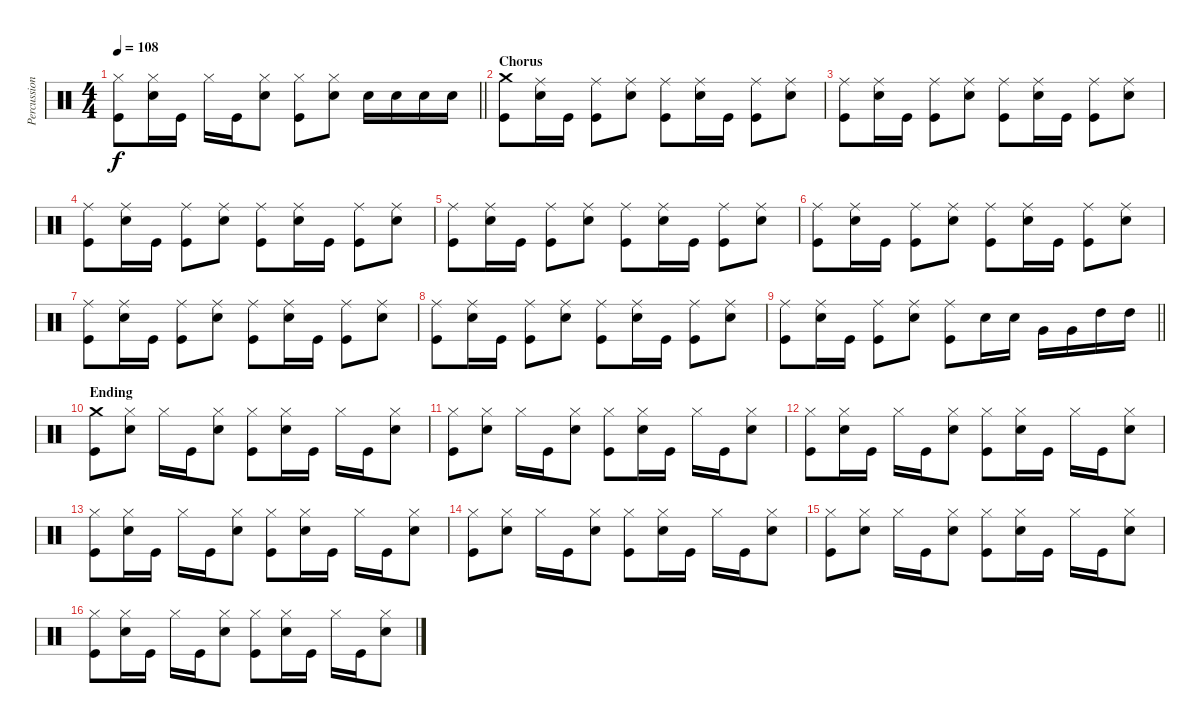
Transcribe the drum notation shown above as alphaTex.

\track ("Percussion" "Percussion") {instrument percussion}
\staff {score}
\articulation defaults
\ts (4 4)
\tempo 108
\clef neutral
\barLineRight lightlight
\ks c
("Kick (hit)" "Hi-Hat (closed)").8{dy f} ("Hi-Hat (closed)" "Snare (hit) 2").16 "Kick (hit)".16 "Hi-Hat (closed)".16 "Kick (hit)".16 ("Hi-Hat (closed)" "Snare (hit) 2").8 ("Kick (hit)" "Hi-Hat (closed)").8 ("Hi-Hat (closed)" "Snare (hit) 2").8 "Snare (hit) 2".16 "Snare (hit) 2".16 "Snare (hit) 2".16 "Snare (hit) 2".16 |
\section ("" "Chorus")
("Kick (hit)" "Crash medium (hit)").8 ("Ride (middle)" "Snare (hit) 2").16 "Kick (hit)".16 ("Kick (hit)" "Ride (middle)").8 ("Ride (middle)" "Snare (hit) 2").8 ("Kick (hit)" "Ride (middle)").8 ("Ride (middle)" "Snare (hit) 2").16 "Kick (hit)".16 ("Kick (hit)" "Ride (middle)").8 ("Ride (middle)" "Snare (hit) 2").8 |
("Kick (hit)" "Ride (middle)").8 ("Ride (middle)" "Snare (hit) 2").16 "Kick (hit)".16 ("Kick (hit)" "Ride (middle)").8 ("Ride (middle)" "Snare (hit) 2").8 ("Kick (hit)" "Ride (middle)").8 ("Ride (middle)" "Snare (hit) 2").16 "Kick (hit)".16 ("Kick (hit)" "Ride (middle)").8 ("Ride (middle)" "Snare (hit) 2").8 |
("Kick (hit)" "Ride (middle)").8 ("Ride (middle)" "Snare (hit) 2").16 "Kick (hit)".16 ("Kick (hit)" "Ride (middle)").8 ("Ride (middle)" "Snare (hit) 2").8 ("Kick (hit)" "Ride (middle)").8 ("Ride (middle)" "Snare (hit) 2").16 "Kick (hit)".16 ("Kick (hit)" "Ride (middle)").8 ("Ride (middle)" "Snare (hit) 2").8 |
("Kick (hit)" "Ride (middle)").8 ("Ride (middle)" "Snare (hit) 2").16 "Kick (hit)".16 ("Kick (hit)" "Ride (middle)").8 ("Ride (middle)" "Snare (hit) 2").8 ("Kick (hit)" "Ride (middle)").8 ("Ride (middle)" "Snare (hit) 2").16 "Kick (hit)".16 ("Kick (hit)" "Ride (middle)").8 ("Ride (middle)" "Snare (hit) 2").8 |
("Kick (hit)" "Ride (middle)").8 ("Ride (middle)" "Snare (hit) 2").16 "Kick (hit)".16 ("Kick (hit)" "Ride (middle)").8 ("Ride (middle)" "Snare (hit) 2").8 ("Kick (hit)" "Ride (middle)").8 ("Ride (middle)" "Snare (hit) 2").16 "Kick (hit)".16 ("Kick (hit)" "Ride (middle)").8 ("Ride (middle)" "Snare (hit) 2").8 |
("Kick (hit)" "Ride (middle)").8 ("Ride (middle)" "Snare (hit) 2").16 "Kick (hit)".16 ("Kick (hit)" "Ride (middle)").8 ("Ride (middle)" "Snare (hit) 2").8 ("Kick (hit)" "Ride (middle)").8 ("Ride (middle)" "Snare (hit) 2").16 "Kick (hit)".16 ("Kick (hit)" "Ride (middle)").8 ("Ride (middle)" "Snare (hit) 2").8 |
("Kick (hit)" "Ride (middle)").8 ("Ride (middle)" "Snare (hit) 2").16 "Kick (hit)".16 ("Kick (hit)" "Ride (middle)").8 ("Ride (middle)" "Snare (hit) 2").8 ("Kick (hit)" "Ride (middle)").8 ("Ride (middle)" "Snare (hit) 2").16 "Kick (hit)".16 ("Kick (hit)" "Ride (middle)").8 ("Ride (middle)" "Snare (hit) 2").8 |
\barLineRight lightlight
("Kick (hit)" "Ride (middle)").8 ("Ride (middle)" "Snare (hit) 2").16 "Kick (hit)".16 ("Kick (hit)" "Ride (middle)").8 ("Ride (middle)" "Snare (hit) 2").8 ("Kick (hit)" "Ride (middle)").8 "Snare (hit) 2".16 "Snare (hit) 2".16 "Very Low Tom (hit)".16 "Very Low Tom (hit)".16 "High Tom (hit)".16 "High Tom (hit)".16 |
\section ("" "Ending")
("Kick (hit)" "Crash medium (hit)").8 ("Hi-Hat (closed)" "Snare (hit) 2").8 "Hi-Hat (closed)".16 "Kick (hit)".16 ("Hi-Hat (closed)" "Snare (hit) 2").8 ("Kick (hit)" "Hi-Hat (closed)").8 ("Hi-Hat (closed)" "Snare (hit) 2").16 "Kick (hit)".16 "Hi-Hat (closed)".16 "Kick (hit)".16 ("Hi-Hat (closed)" "Snare (hit) 2").8 |
("Kick (hit)" "Hi-Hat (closed)").8 ("Hi-Hat (closed)" "Snare (hit) 2").8 "Hi-Hat (closed)".16 "Kick (hit)".16 ("Hi-Hat (closed)" "Snare (hit) 2").8 ("Kick (hit)" "Hi-Hat (closed)").8 ("Hi-Hat (closed)" "Snare (hit) 2").16 "Kick (hit)".16 "Hi-Hat (closed)".16 "Kick (hit)".16 ("Hi-Hat (closed)" "Snare (hit) 2").8 |
("Kick (hit)" "Hi-Hat (closed)").8 ("Hi-Hat (closed)" "Snare (hit) 2").16 "Kick (hit)".16 "Hi-Hat (closed)".16 "Kick (hit)".16 ("Hi-Hat (closed)" "Snare (hit) 2").8 ("Kick (hit)" "Hi-Hat (closed)").8 ("Hi-Hat (closed)" "Snare (hit) 2").16 "Kick (hit)".16 "Hi-Hat (closed)".16 "Kick (hit)".16 ("Hi-Hat (closed)" "Snare (hit) 2").8 |
("Kick (hit)" "Hi-Hat (closed)").8 ("Hi-Hat (closed)" "Snare (hit) 2").16 "Kick (hit)".16 "Hi-Hat (closed)".16 "Kick (hit)".16 ("Hi-Hat (closed)" "Snare (hit) 2").8 ("Kick (hit)" "Hi-Hat (closed)").8 ("Hi-Hat (closed)" "Snare (hit) 2").16 "Kick (hit)".16 "Hi-Hat (closed)".16 "Kick (hit)".16 ("Hi-Hat (closed)" "Snare (hit) 2").8 |
("Kick (hit)" "Hi-Hat (closed)").8 ("Hi-Hat (closed)" "Snare (hit) 2").8 "Hi-Hat (closed)".16 "Kick (hit)".16 ("Hi-Hat (closed)" "Snare (hit) 2").8 ("Kick (hit)" "Hi-Hat (closed)").8 ("Hi-Hat (closed)" "Snare (hit) 2").16 "Kick (hit)".16 "Hi-Hat (closed)".16 "Kick (hit)".16 ("Hi-Hat (closed)" "Snare (hit) 2").8 |
("Kick (hit)" "Hi-Hat (closed)").8 ("Hi-Hat (closed)" "Snare (hit) 2").8 "Hi-Hat (closed)".16 "Kick (hit)".16 ("Hi-Hat (closed)" "Snare (hit) 2").8 ("Kick (hit)" "Hi-Hat (closed)").8 ("Hi-Hat (closed)" "Snare (hit) 2").16 "Kick (hit)".16 "Hi-Hat (closed)".16 "Kick (hit)".16 ("Hi-Hat (closed)" "Snare (hit) 2").8 |
("Kick (hit)" "Hi-Hat (closed)").8 ("Hi-Hat (closed)" "Snare (hit) 2").16 "Kick (hit)".16 "Hi-Hat (closed)".16 "Kick (hit)".16 ("Hi-Hat (closed)" "Snare (hit) 2").8 ("Kick (hit)" "Hi-Hat (closed)").8 ("Hi-Hat (closed)" "Snare (hit) 2").16 "Kick (hit)".16 "Hi-Hat (closed)".16 "Kick (hit)".16 ("Hi-Hat (closed)" "Snare (hit) 2").8
